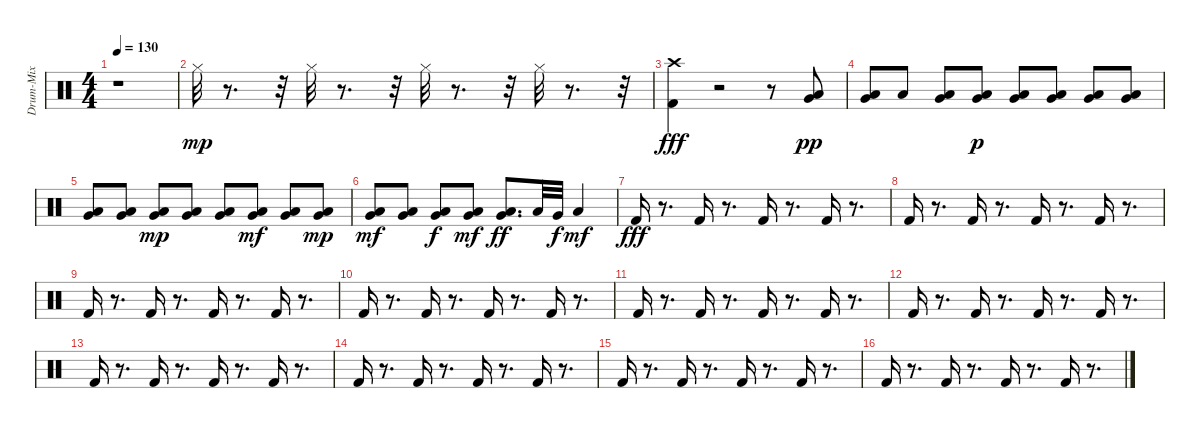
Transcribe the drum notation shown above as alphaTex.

\track ("Drum-Mix" "Drum-Mix") {instrument percussion}
\staff {score}
\articulation defaults
\ts (4 4)
\tempo 130
\clef neutral
\ks c
r.1{dy mp} |
"Hi-Hat (closed)".32 r.8{d} r.32 "Hi-Hat (closed)".32 r.8{d} r.32 "Hi-Hat (closed)".32 r.8{d} r.32 "Hi-Hat (closed)".32 r.8{d} r.32 |
("Kick (hit) 2" "Crash high (hit)").4{dy fff} r.2 r.8 ("Low Floor Tom (hit)" "Very Low Tom (hit)").8{dy pp} |
("Low Floor Tom (hit)" "Very Low Tom (hit)").8 "Low Floor Tom (hit)".8 ("Low Floor Tom (hit)" "Very Low Tom (hit)").8 ("Low Floor Tom (hit)" "Very Low Tom (hit)").8{dy p} ("Low Floor Tom (hit)" "Very Low Tom (hit)").8 ("Low Floor Tom (hit)" "Very Low Tom (hit)").8 ("Low Floor Tom (hit)" "Very Low Tom (hit)").8 ("Low Floor Tom (hit)" "Very Low Tom (hit)").8 |
("Low Floor Tom (hit)" "Very Low Tom (hit)").8 ("Low Floor Tom (hit)" "Very Low Tom (hit)").8 ("Low Floor Tom (hit)" "Very Low Tom (hit)").8{dy mp} ("Low Floor Tom (hit)" "Very Low Tom (hit)").8 ("Low Floor Tom (hit)" "Very Low Tom (hit)").8 ("Low Floor Tom (hit)" "Very Low Tom (hit)").8{dy mf} ("Low Floor Tom (hit)" "Very Low Tom (hit)").8 ("Low Floor Tom (hit)" "Very Low Tom (hit)").8{dy mp} |
("Low Floor Tom (hit)" "Very Low Tom (hit)").8{dy mf} ("Low Floor Tom (hit)" "Very Low Tom (hit)").8 ("Low Floor Tom (hit)" "Very Low Tom (hit)").8{dy f} ("Low Floor Tom (hit)" "Very Low Tom (hit)").8{dy mf} ("Low Floor Tom (hit)" "Very Low Tom (hit)").8{d dy ff} "Low Tom (hit)".32 "Very Low Tom (hit)".32{dy f} "Low Floor Tom (hit)".4{dy mf} |
"Kick (hit) 2".16{dy fff} r.8{d} "Kick (hit) 2".16 r.8{d} "Kick (hit) 2".16 r.8{d} "Kick (hit) 2".16 r.8{d} |
"Kick (hit) 2".16 r.8{d} "Kick (hit) 2".16 r.8{d} "Kick (hit) 2".16 r.8{d} "Kick (hit) 2".16 r.8{d} |
"Kick (hit) 2".16 r.8{d} "Kick (hit) 2".16 r.8{d} "Kick (hit) 2".16 r.8{d} "Kick (hit) 2".16 r.8{d} |
"Kick (hit) 2".16 r.8{d} "Kick (hit) 2".16 r.8{d} "Kick (hit) 2".16 r.8{d} "Kick (hit) 2".16 r.8{d} |
"Kick (hit) 2".16 r.8{d} "Kick (hit) 2".16 r.8{d} "Kick (hit) 2".16 r.8{d} "Kick (hit) 2".16 r.8{d} |
"Kick (hit) 2".16 r.8{d} "Kick (hit) 2".16 r.8{d} "Kick (hit) 2".16 r.8{d} "Kick (hit) 2".16 r.8{d} |
"Kick (hit) 2".16 r.8{d} "Kick (hit) 2".16 r.8{d} "Kick (hit) 2".16 r.8{d} "Kick (hit) 2".16 r.8{d} |
"Kick (hit) 2".16 r.8{d} "Kick (hit) 2".16 r.8{d} "Kick (hit) 2".16 r.8{d} "Kick (hit) 2".16 r.8{d} |
"Kick (hit) 2".16 r.8{d} "Kick (hit) 2".16 r.8{d} "Kick (hit) 2".16 r.8{d} "Kick (hit) 2".16 r.8{d} |
"Kick (hit) 2".16 r.8{d} "Kick (hit) 2".16 r.8{d} "Kick (hit) 2".16 r.8{d} "Kick (hit) 2".16 r.8{d}
